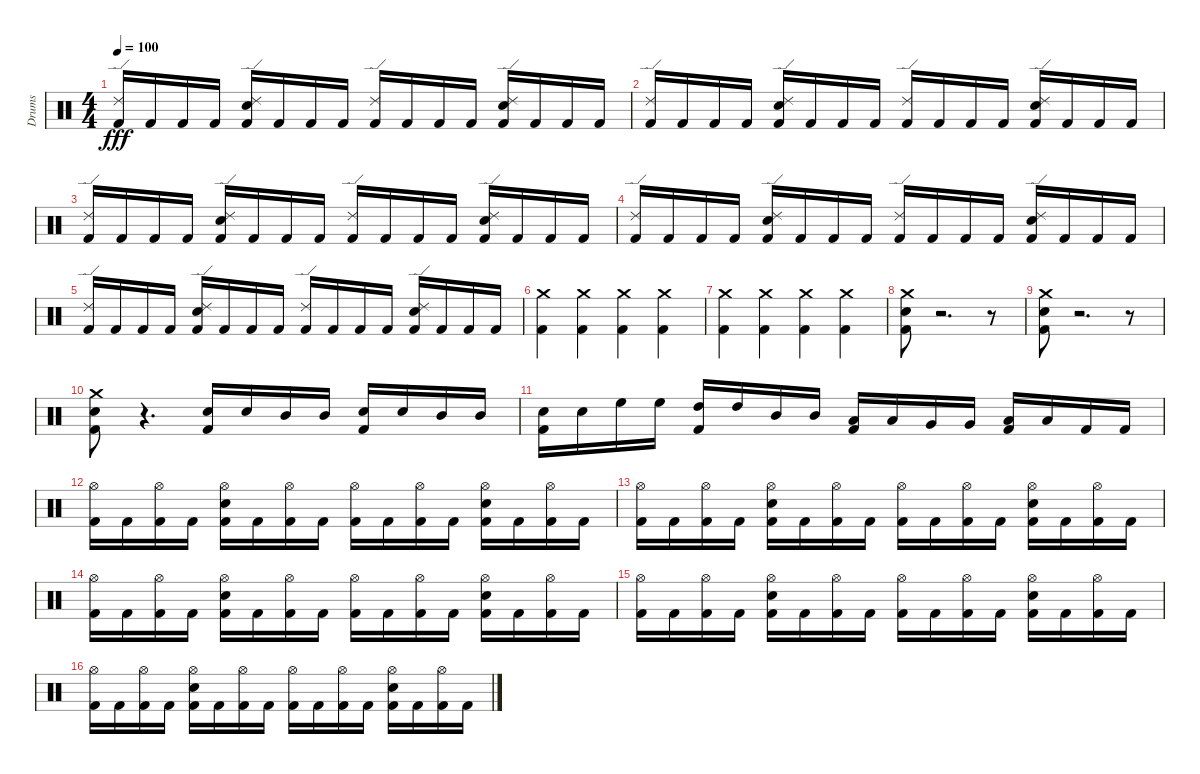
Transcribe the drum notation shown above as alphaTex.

\track ("Drums" "Drums") {instrument percussion}
\staff {score}
\articulation defaults
\ts (4 4)
\tempo 100
\clef neutral
\ks c
("Ride (edge) 2" "Kick (hit) 2").16{dy fff} "Kick (hit) 2".16 "Kick (hit) 2".16 "Kick (hit) 2".16 ("Electric Snare (hit)" "Ride (edge) 2" "Kick (hit) 2").16 "Kick (hit) 2".16 "Kick (hit) 2".16 "Kick (hit) 2".16 ("Ride (edge) 2" "Kick (hit) 2").16 "Kick (hit) 2".16 "Kick (hit) 2".16 "Kick (hit) 2".16 ("Ride (edge) 2" "Electric Snare (hit)" "Kick (hit) 2").16 "Kick (hit) 2".16 "Kick (hit) 2".16 "Kick (hit) 2".16 |
("Ride (edge) 2" "Kick (hit) 2").16 "Kick (hit) 2".16 "Kick (hit) 2".16 "Kick (hit) 2".16 ("Electric Snare (hit)" "Ride (edge) 2" "Kick (hit) 2").16 "Kick (hit) 2".16 "Kick (hit) 2".16 "Kick (hit) 2".16 ("Ride (edge) 2" "Kick (hit) 2").16 "Kick (hit) 2".16 "Kick (hit) 2".16 "Kick (hit) 2".16 ("Ride (edge) 2" "Electric Snare (hit)" "Kick (hit) 2").16 "Kick (hit) 2".16 "Kick (hit) 2".16 "Kick (hit) 2".16 |
("Ride (edge) 2" "Kick (hit) 2").16 "Kick (hit) 2".16 "Kick (hit) 2".16 "Kick (hit) 2".16 ("Electric Snare (hit)" "Ride (edge) 2" "Kick (hit) 2").16 "Kick (hit) 2".16 "Kick (hit) 2".16 "Kick (hit) 2".16 ("Ride (edge) 2" "Kick (hit) 2").16 "Kick (hit) 2".16 "Kick (hit) 2".16 "Kick (hit) 2".16 ("Ride (edge) 2" "Electric Snare (hit)" "Kick (hit) 2").16 "Kick (hit) 2".16 "Kick (hit) 2".16 "Kick (hit) 2".16 |
("Ride (edge) 2" "Kick (hit) 2").16 "Kick (hit) 2".16 "Kick (hit) 2".16 "Kick (hit) 2".16 ("Electric Snare (hit)" "Ride (edge) 2" "Kick (hit) 2").16 "Kick (hit) 2".16 "Kick (hit) 2".16 "Kick (hit) 2".16 ("Ride (edge) 2" "Kick (hit) 2").16 "Kick (hit) 2".16 "Kick (hit) 2".16 "Kick (hit) 2".16 ("Ride (edge) 2" "Electric Snare (hit)" "Kick (hit) 2").16 "Kick (hit) 2".16 "Kick (hit) 2".16 "Kick (hit) 2".16 |
("Ride (edge) 2" "Kick (hit) 2").16 "Kick (hit) 2".16 "Kick (hit) 2".16 "Kick (hit) 2".16 ("Electric Snare (hit)" "Ride (edge) 2" "Kick (hit) 2").16 "Kick (hit) 2".16 "Kick (hit) 2".16 "Kick (hit) 2".16 ("Ride (edge) 2" "Kick (hit) 2").16 "Kick (hit) 2".16 "Kick (hit) 2".16 "Kick (hit) 2".16 ("Ride (edge) 2" "Electric Snare (hit)" "Kick (hit) 2").16 "Kick (hit) 2".16 "Kick (hit) 2".16 "Kick (hit) 2".16 |
("Crash medium (hit)" "Kick (hit) 2").4 ("Crash medium (hit)" "Kick (hit) 2").4 ("Crash medium (hit)" "Kick (hit) 2").4 ("Crash medium (hit)" "Kick (hit) 2").4 |
("Crash medium (hit)" "Kick (hit) 2").4 ("Crash medium (hit)" "Kick (hit) 2").4 ("Crash medium (hit)" "Kick (hit) 2").4 ("Crash medium (hit)" "Kick (hit) 2").4 |
("Electric Snare (hit)" "Crash medium (hit)" "Kick (hit) 2").8 r.2{d} r.8 |
("Crash medium (hit)" "Electric Snare (hit)" "Kick (hit) 2").8 r.2{d} r.8 |
("Crash medium (hit)" "Electric Snare (hit)" "Kick (hit) 2").8 r.4{d} ("Kick (hit) 2" "Electric Snare (hit)").16 "Electric Snare (hit)".16 "Mid Tom (hit)".16 "Mid Tom (hit)".16 ("Kick (hit) 2" "Electric Snare (hit)").16 "Electric Snare (hit)".16 "Mid Tom (hit)".16 "Mid Tom (hit)".16 |
("Kick (hit) 2" "Electric Snare (hit)").16 "Electric Snare (hit)".16 "High Floor Tom (hit)".16 "High Floor Tom (hit)".16 ("Kick (hit) 2" "High Tom (hit)").16 "High Tom (hit)".16 "Mid Tom (hit)".16 "Mid Tom (hit)".16 ("Kick (hit) 2" "Low Tom (hit)").16 "Low Tom (hit)".16 "Very Low Tom (hit)".16 "Very Low Tom (hit)".16 ("Kick (hit) 2" "Low Floor Tom (hit)").16 "Low Floor Tom (hit)".16 "Kick (hit) 2".16 "Kick (hit) 2".16 |
("Hi-Hat (open)" "Kick (hit) 2").16 "Kick (hit) 2".16 ("Hi-Hat (open)" "Kick (hit) 2").16 "Kick (hit) 2".16 ("Electric Snare (hit)" "Hi-Hat (open)" "Kick (hit) 2").16 "Kick (hit) 2".16 ("Hi-Hat (open)" "Kick (hit) 2").16 "Kick (hit) 2".16 ("Hi-Hat (open)" "Kick (hit) 2").16 "Kick (hit) 2".16 ("Hi-Hat (open)" "Kick (hit) 2").16 "Kick (hit) 2".16 ("Hi-Hat (open)" "Electric Snare (hit)" "Kick (hit) 2").16 "Kick (hit) 2".16 ("Hi-Hat (open)" "Kick (hit) 2").16 "Kick (hit) 2".16 |
("Hi-Hat (open)" "Kick (hit) 2").16 "Kick (hit) 2".16 ("Hi-Hat (open)" "Kick (hit) 2").16 "Kick (hit) 2".16 ("Electric Snare (hit)" "Hi-Hat (open)" "Kick (hit) 2").16 "Kick (hit) 2".16 ("Hi-Hat (open)" "Kick (hit) 2").16 "Kick (hit) 2".16 ("Hi-Hat (open)" "Kick (hit) 2").16 "Kick (hit) 2".16 ("Hi-Hat (open)" "Kick (hit) 2").16 "Kick (hit) 2".16 ("Hi-Hat (open)" "Electric Snare (hit)" "Kick (hit) 2").16 "Kick (hit) 2".16 ("Hi-Hat (open)" "Kick (hit) 2").16 "Kick (hit) 2".16 |
("Hi-Hat (open)" "Kick (hit) 2").16 "Kick (hit) 2".16 ("Hi-Hat (open)" "Kick (hit) 2").16 "Kick (hit) 2".16 ("Electric Snare (hit)" "Hi-Hat (open)" "Kick (hit) 2").16 "Kick (hit) 2".16 ("Hi-Hat (open)" "Kick (hit) 2").16 "Kick (hit) 2".16 ("Hi-Hat (open)" "Kick (hit) 2").16 "Kick (hit) 2".16 ("Hi-Hat (open)" "Kick (hit) 2").16 "Kick (hit) 2".16 ("Hi-Hat (open)" "Electric Snare (hit)" "Kick (hit) 2").16 "Kick (hit) 2".16 ("Hi-Hat (open)" "Kick (hit) 2").16 "Kick (hit) 2".16 |
("Hi-Hat (open)" "Kick (hit) 2").16 "Kick (hit) 2".16 ("Hi-Hat (open)" "Kick (hit) 2").16 "Kick (hit) 2".16 ("Electric Snare (hit)" "Hi-Hat (open)" "Kick (hit) 2").16 "Kick (hit) 2".16 ("Hi-Hat (open)" "Kick (hit) 2").16 "Kick (hit) 2".16 ("Hi-Hat (open)" "Kick (hit) 2").16 "Kick (hit) 2".16 ("Hi-Hat (open)" "Kick (hit) 2").16 "Kick (hit) 2".16 ("Hi-Hat (open)" "Electric Snare (hit)" "Kick (hit) 2").16 "Kick (hit) 2".16 ("Hi-Hat (open)" "Kick (hit) 2").16 "Kick (hit) 2".16 |
("Hi-Hat (open)" "Kick (hit) 2").16 "Kick (hit) 2".16 ("Hi-Hat (open)" "Kick (hit) 2").16 "Kick (hit) 2".16 ("Electric Snare (hit)" "Hi-Hat (open)" "Kick (hit) 2").16 "Kick (hit) 2".16 ("Hi-Hat (open)" "Kick (hit) 2").16 "Kick (hit) 2".16 ("Hi-Hat (open)" "Kick (hit) 2").16 "Kick (hit) 2".16 ("Hi-Hat (open)" "Kick (hit) 2").16 "Kick (hit) 2".16 ("Hi-Hat (open)" "Electric Snare (hit)" "Kick (hit) 2").16 "Kick (hit) 2".16 ("Hi-Hat (open)" "Kick (hit) 2").16 "Kick (hit) 2".16
